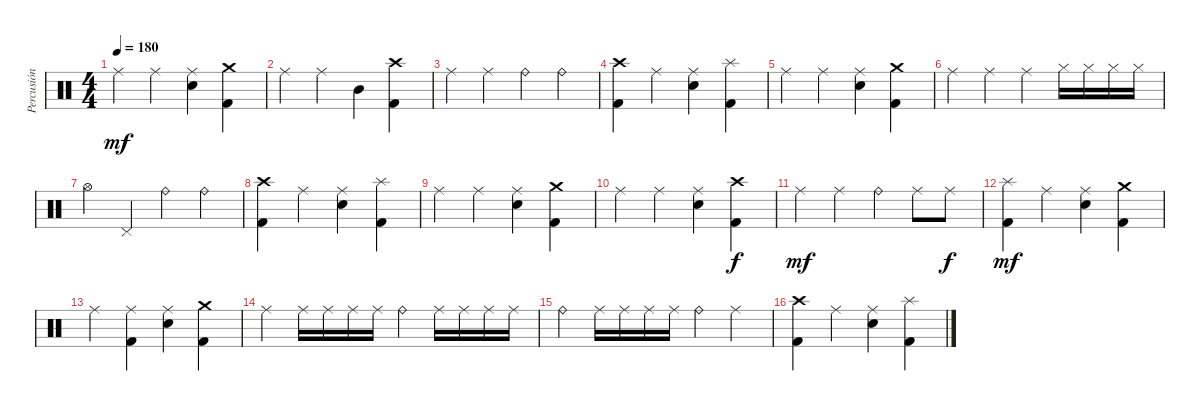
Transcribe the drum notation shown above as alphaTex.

\track ("Percusión" "Percusión") {instrument percussion}
\staff {score}
\articulation defaults
\ts (4 4)
\tempo 180
\clef neutral
\ks c "Ride (middle)".4{dy mf} "Ride (middle)".4
("Ride (middle)" "Snare (hit) 2").4 ("Crash medium (hit)" "Kick (hit) 2").4 |
"Ride (middle)".4 "Ride (middle)".4 "Mid Tom (hit)".4 ("Crash high (hit)" "Kick (hit) 2").4 |
"Ride (middle)".4 "Ride (middle)".4 "Ride (bell)".4 "Ride (bell)".4 |
("Crash high (hit)" "Kick (hit) 2").4 "Ride (middle)".4 ("Ride (middle)" "Snare (hit) 2").4 ("Splash (hit)" "Kick (hit) 2").4 |
"Ride (middle)".4 "Ride (middle)".4 ("Ride (middle)" "Snare (hit) 2").4 ("Crash medium (hit)" "Kick (hit) 2").4 |
"Ride (middle)".4 "Ride (middle)".4 "Ride (middle)".4 "Hi-Hat (closed)".16 "Hi-Hat (closed)".16 "Hi-Hat (closed)".16 "Hi-Hat (closed)".16 |
"Hi-Hat (open)".4 "Pedal Hi-Hat (hit)".4 "Ride (bell)".4 "Ride (bell)".4 |
("Crash high (hit)" "Kick (hit) 2").4 "Ride (middle)".4 ("Ride (middle)" "Snare (hit) 2").4 ("Splash (hit)" "Kick (hit) 2").4 |
"Ride (middle)".4 "Ride (middle)".4 ("Ride (middle)" "Snare (hit) 2").4 ("Crash medium (hit)" "Kick (hit) 2").4 |
"Ride (middle)".4 "Ride (middle)".4 ("Ride (middle)" "Snare (hit) 2").4 ("Crash high (hit)" "Kick (hit) 2").4{dy f} |
"Ride (middle)".4{dy mf} "Ride (middle)".4 "Ride (bell)".4 "Ride (middle)".8 "Ride (middle)".8{dy f} |
("Splash (hit)" "Kick (hit) 2").4{dy mf} "Ride (middle)".4 ("Ride (middle)" "Snare (hit) 2").4 ("Crash medium (hit)" "Kick (hit) 2").4 |
"Ride (middle)".4 ("Ride (middle)" "Kick (hit) 2").4 ("Ride (middle)" "Snare (hit) 2").4 ("Crash medium (hit)" "Kick (hit) 2").4 |
"Ride (middle)".4 "Ride (middle)".16 "Ride (middle)".16 "Ride (middle)".16 "Ride (middle)".16 "Ride (bell)".4 "Ride (middle)".16 "Ride (middle)".16 "Ride (middle)".16 "Ride (middle)".16 |
"Ride (bell)".4 "Ride (middle)".16 "Ride (middle)".16 "Ride (middle)".16 "Ride (middle)".16 "Ride (bell)".4 "Ride (middle)".4 |
("Crash high (hit)" "Kick (hit) 2").4 "Ride (middle)".4 ("Ride (middle)" "Snare (hit) 2").4 ("Splash (hit)" "Kick (hit) 2").4
